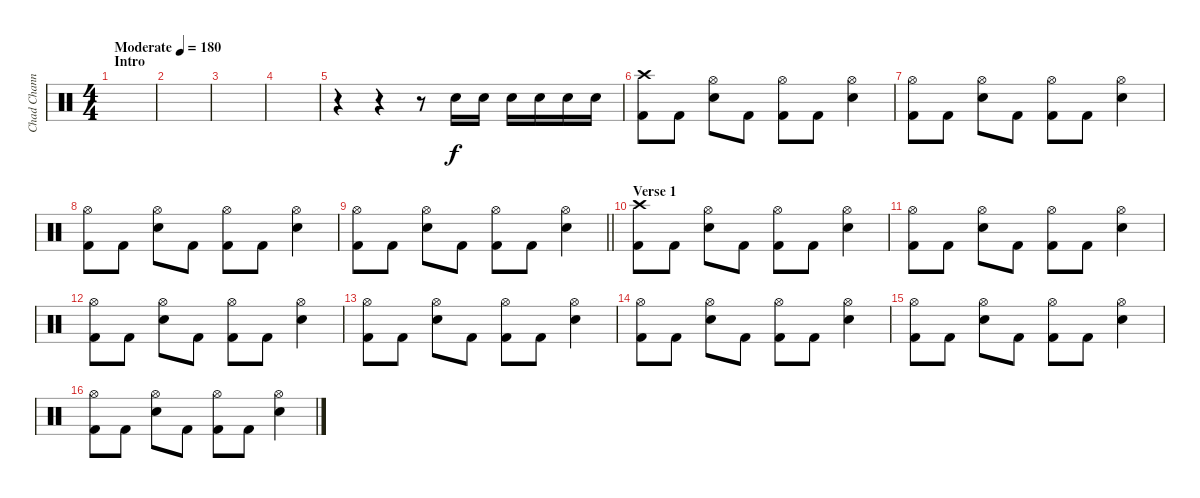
\track ("Chad Channing" "Chad Chann") {instrument percussion}
\staff {score}
\articulation defaults
\ts (4 4)
\section ("" "Intro")
\tempo (180 "Moderate")
\clef neutral
\ks c
|
|
|
|
r.4 r.4 r.8 "Snare (hit) 2".16 "Snare (hit) 2".16 "Snare (hit) 2".16 "Snare (hit) 2".16 "Snare (hit) 2".16 "Snare (hit) 2".16 |
("Crash high (hit)" "Kick (hit) 2").8 "Kick (hit) 2".8 ("Hi-Hat (open)" "Snare (hit) 2").8 "Kick (hit) 2".8 ("Hi-Hat (open)" "Kick (hit) 2").8 "Kick (hit) 2".8 ("Hi-Hat (open)" "Snare (hit) 2").4 |
("Hi-Hat (open)" "Kick (hit) 2").8 "Kick (hit) 2".8 ("Hi-Hat (open)" "Snare (hit) 2").8 "Kick (hit) 2".8 ("Hi-Hat (open)" "Kick (hit) 2").8 "Kick (hit) 2".8 ("Hi-Hat (open)" "Snare (hit) 2").4 |
("Hi-Hat (open)" "Kick (hit) 2").8 "Kick (hit) 2".8 ("Hi-Hat (open)" "Snare (hit) 2").8 "Kick (hit) 2".8 ("Hi-Hat (open)" "Kick (hit) 2").8 "Kick (hit) 2".8 ("Hi-Hat (open)" "Snare (hit) 2").4 |
\barLineRight lightlight
("Hi-Hat (open)" "Kick (hit) 2").8 "Kick (hit) 2".8 ("Hi-Hat (open)" "Snare (hit) 2").8 "Kick (hit) 2".8 ("Hi-Hat (open)" "Kick (hit) 2").8 "Kick (hit) 2".8 ("Hi-Hat (open)" "Snare (hit) 2").4 |
\section ("" "Verse 1")
("Crash high (hit)" "Kick (hit) 2").8 "Kick (hit) 2".8 ("Hi-Hat (open)" "Snare (hit) 2").8 "Kick (hit) 2".8 ("Hi-Hat (open)" "Kick (hit) 2").8 "Kick (hit) 2".8 ("Hi-Hat (open)" "Snare (hit) 2").4 |
("Hi-Hat (open)" "Kick (hit) 2").8 "Kick (hit) 2".8 ("Hi-Hat (open)" "Snare (hit) 2").8 "Kick (hit) 2".8 ("Hi-Hat (open)" "Kick (hit) 2").8 "Kick (hit) 2".8 ("Hi-Hat (open)" "Snare (hit) 2").4 |
("Hi-Hat (open)" "Kick (hit) 2").8 "Kick (hit) 2".8 ("Hi-Hat (open)" "Snare (hit) 2").8 "Kick (hit) 2".8 ("Hi-Hat (open)" "Kick (hit) 2").8 "Kick (hit) 2".8 ("Hi-Hat (open)" "Snare (hit) 2").4 |
("Hi-Hat (open)" "Kick (hit) 2").8 "Kick (hit) 2".8 ("Hi-Hat (open)" "Snare (hit) 2").8 "Kick (hit) 2".8 ("Hi-Hat (open)" "Kick (hit) 2").8 "Kick (hit) 2".8 ("Hi-Hat (open)" "Snare (hit) 2").4 |
("Hi-Hat (open)" "Kick (hit) 2").8 "Kick (hit) 2".8 ("Hi-Hat (open)" "Snare (hit) 2").8 "Kick (hit) 2".8 ("Hi-Hat (open)" "Kick (hit) 2").8 "Kick (hit) 2".8 ("Hi-Hat (open)" "Snare (hit) 2").4 |
("Hi-Hat (open)" "Kick (hit) 2").8 "Kick (hit) 2".8 ("Hi-Hat (open)" "Snare (hit) 2").8 "Kick (hit) 2".8 ("Hi-Hat (open)" "Kick (hit) 2").8 "Kick (hit) 2".8 ("Hi-Hat (open)" "Snare (hit) 2").4 |
("Hi-Hat (open)" "Kick (hit) 2").8 "Kick (hit) 2".8 ("Hi-Hat (open)" "Snare (hit) 2").8 "Kick (hit) 2".8 ("Hi-Hat (open)" "Kick (hit) 2").8 "Kick (hit) 2".8 ("Hi-Hat (open)" "Snare (hit) 2").4
